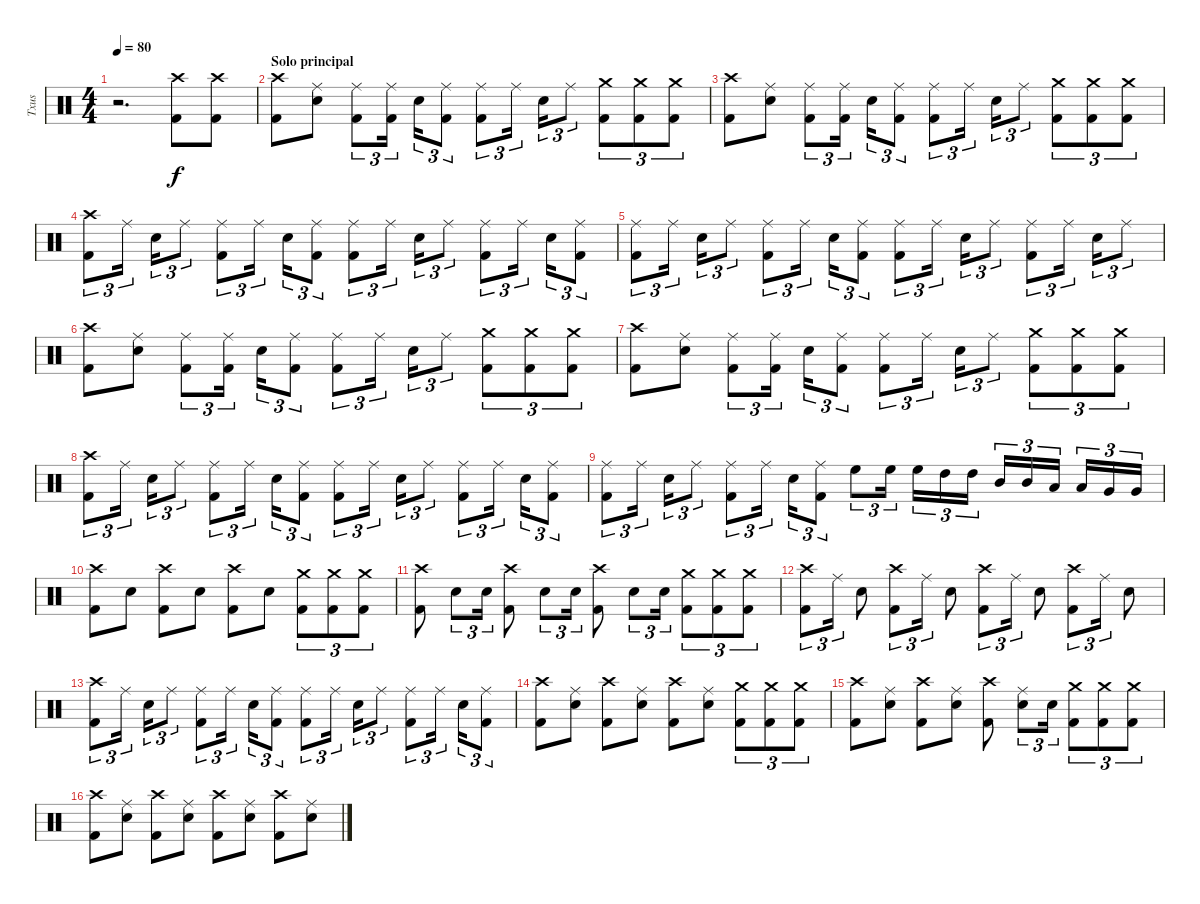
\track ("Txus" "Txus") {instrument percussion}
\staff {score}
\articulation defaults
\ts (4 4)
\tempo 80
\clef neutral
\ks c
r.2{d dy f} ("Kick (hit) 2" "Crash high (hit)").8{volume 16} ("Kick (hit) 2" "Crash high (hit)").8 |
\section ("" "Solo principal")
("Kick (hit) 2" "Crash high (hit)").8 ("Electric Snare (hit)" "Ride (middle)").8 ("Kick (hit) 2" "Ride (middle)").8{tu (3 2)} ("Kick (hit) 2" "Ride (middle)").16{tu (3 2)} "Electric Snare (hit)".16{tu (3 2)} ("Kick (hit) 2" "Ride (middle)").8{tu (3 2)} ("Kick (hit) 2" "Ride (middle)").8{tu (3 2)} "Ride (middle)".16{tu (3 2)} "Electric Snare (hit)".16{tu (3 2)} "Ride (middle)".8{tu (3 2)} ("Kick (hit) 2" "Crash medium (hit)").8{tu (3 2)} ("Kick (hit) 2" "Crash medium (hit)").8{tu (3 2)} ("Kick (hit) 2" "Crash medium (hit)").8{tu (3 2)} |
("Kick (hit) 2" "Crash high (hit)").8 ("Electric Snare (hit)" "Ride (middle)").8 ("Kick (hit) 2" "Ride (middle)").8{tu (3 2)} ("Kick (hit) 2" "Ride (middle)").16{tu (3 2)} "Electric Snare (hit)".16{tu (3 2)} ("Kick (hit) 2" "Ride (middle)").8{tu (3 2)} ("Kick (hit) 2" "Ride (middle)").8{tu (3 2)} "Ride (middle)".16{tu (3 2)} "Electric Snare (hit)".16{tu (3 2)} "Ride (middle)".8{tu (3 2)} ("Kick (hit) 2" "Crash medium (hit)").8{tu (3 2)} ("Kick (hit) 2" "Crash medium (hit)").8{tu (3 2)} ("Kick (hit) 2" "Crash medium (hit)").8{tu (3 2)} |
("Kick (hit) 2" "Crash high (hit)").8{tu (3 2)} "Ride (middle)".16{tu (3 2)} "Electric Snare (hit)".16{tu (3 2)} "Ride (middle)".8{tu (3 2)} ("Kick (hit) 2" "Ride (middle)").8{tu (3 2)} "Ride (middle)".16{tu (3 2)} "Electric Snare (hit)".16{tu (3 2)} ("Kick (hit) 2" "Ride (middle)").8{tu (3 2)} ("Kick (hit) 2" "Ride (middle)").8{tu (3 2)} "Ride (middle)".16{tu (3 2)} "Electric Snare (hit)".16{tu (3 2)} "Ride (middle)".8{tu (3 2)} ("Kick (hit) 2" "Ride (middle)").8{tu (3 2)} "Ride (middle)".16{tu (3 2)} "Electric Snare (hit)".16{tu (3 2)} ("Kick (hit) 2" "Ride (middle)").8{tu (3 2)} |
("Kick (hit) 2" "Ride (middle)").8{tu (3 2)} "Ride (middle)".16{tu (3 2)} "Electric Snare (hit)".16{tu (3 2)} "Ride (middle)".8{tu (3 2)} ("Kick (hit) 2" "Ride (middle)").8{tu (3 2)} "Ride (middle)".16{tu (3 2)} "Electric Snare (hit)".16{tu (3 2)} ("Kick (hit) 2" "Ride (middle)").8{tu (3 2)} ("Kick (hit) 2" "Ride (middle)").8{tu (3 2)} "Ride (middle)".16{tu (3 2)} "Electric Snare (hit)".16{tu (3 2)} "Ride (middle)".8{tu (3 2)} ("Kick (hit) 2" "Ride (middle)").8{tu (3 2)} "Ride (middle)".16{tu (3 2)} "Electric Snare (hit)".16{tu (3 2)} "Ride (middle)".8{tu (3 2)} |
("Kick (hit) 2" "Crash high (hit)").8 ("Electric Snare (hit)" "Ride (middle)").8 ("Kick (hit) 2" "Ride (middle)").8{tu (3 2)} ("Kick (hit) 2" "Ride (middle)").16{tu (3 2)} "Electric Snare (hit)".16{tu (3 2)} ("Kick (hit) 2" "Ride (middle)").8{tu (3 2)} ("Kick (hit) 2" "Ride (middle)").8{tu (3 2)} "Ride (middle)".16{tu (3 2)} "Electric Snare (hit)".16{tu (3 2)} "Ride (middle)".8{tu (3 2)} ("Kick (hit) 2" "Crash medium (hit)").8{tu (3 2)} ("Kick (hit) 2" "Crash medium (hit)").8{tu (3 2)} ("Kick (hit) 2" "Crash medium (hit)").8{tu (3 2)} |
("Kick (hit) 2" "Crash high (hit)").8 ("Electric Snare (hit)" "Ride (middle)").8 ("Kick (hit) 2" "Ride (middle)").8{tu (3 2)} ("Kick (hit) 2" "Ride (middle)").16{tu (3 2)} "Electric Snare (hit)".16{tu (3 2)} ("Kick (hit) 2" "Ride (middle)").8{tu (3 2)} ("Kick (hit) 2" "Ride (middle)").8{tu (3 2)} "Ride (middle)".16{tu (3 2)} "Electric Snare (hit)".16{tu (3 2)} "Ride (middle)".8{tu (3 2)} ("Kick (hit) 2" "Crash medium (hit)").8{tu (3 2)} ("Kick (hit) 2" "Crash medium (hit)").8{tu (3 2)} ("Kick (hit) 2" "Crash medium (hit)").8{tu (3 2)} |
("Kick (hit) 2" "Crash high (hit)").8{tu (3 2)} "Ride (middle)".16{tu (3 2)} "Electric Snare (hit)".16{tu (3 2)} "Ride (middle)".8{tu (3 2)} ("Kick (hit) 2" "Ride (middle)").8{tu (3 2)} "Ride (middle)".16{tu (3 2)} "Electric Snare (hit)".16{tu (3 2)} ("Kick (hit) 2" "Ride (middle)").8{tu (3 2)} ("Kick (hit) 2" "Ride (middle)").8{tu (3 2)} "Ride (middle)".16{tu (3 2)} "Electric Snare (hit)".16{tu (3 2)} "Ride (middle)".8{tu (3 2)} ("Kick (hit) 2" "Ride (middle)").8{tu (3 2)} "Ride (middle)".16{tu (3 2)} "Electric Snare (hit)".16{tu (3 2)} ("Kick (hit) 2" "Ride (middle)").8{tu (3 2)} |
("Kick (hit) 2" "Ride (middle)").8{tu (3 2)} "Ride (middle)".16{tu (3 2)} "Electric Snare (hit)".16{tu (3 2)} "Ride (middle)".8{tu (3 2)} ("Kick (hit) 2" "Ride (middle)").8{tu (3 2)} "Ride (middle)".16{tu (3 2)} "Electric Snare (hit)".16{tu (3 2)} ("Kick (hit) 2" "Ride (middle)").8{tu (3 2)} "High Floor Tom (hit)".8{tu (3 2)} "High Floor Tom (hit)".16{tu (3 2)} "High Floor Tom (hit)".16{tu (3 2)} "High Tom (hit)".16{tu (3 2)} "High Tom (hit)".16{tu (3 2)} "Mid Tom (hit)".16{tu (3 2)} "Mid Tom (hit)".16{tu (3 2)} "Low Tom (hit)".16{tu (3 2)} "Low Tom (hit)".16{tu (3 2)} "Very Low Tom (hit)".16{tu (3 2)} "Very Low Tom (hit)".16{tu (3 2)} |
("Kick (hit) 2" "Crash high (hit)").8 "Electric Snare (hit)".8 ("Kick (hit) 2" "Crash high (hit)").8 "Electric Snare (hit)".8 ("Kick (hit) 2" "Crash high (hit)").8 "Electric Snare (hit)".8 ("Kick (hit) 2" "Crash medium (hit)").8{tu (3 2)} ("Kick (hit) 2" "Crash medium (hit)").8{tu (3 2)} ("Kick (hit) 2" "Crash medium (hit)").8{tu (3 2)} |
("Kick (hit) 2" "Crash high (hit)").8 "Electric Snare (hit)".8{tu (3 2)} "Electric Snare (hit)".16{tu (3 2)} ("Kick (hit) 2" "Crash high (hit)").8 "Electric Snare (hit)".8{tu (3 2)} "Electric Snare (hit)".16{tu (3 2)} ("Kick (hit) 2" "Crash high (hit)").8 "Electric Snare (hit)".8{tu (3 2)} "Electric Snare (hit)".16{tu (3 2)} ("Kick (hit) 2" "Crash medium (hit)").8{tu (3 2)} ("Kick (hit) 2" "Crash medium (hit)").8{tu (3 2)} ("Kick (hit) 2" "Crash medium (hit)").8{tu (3 2)} |
("Kick (hit) 2" "Crash high (hit)").8{tu (3 2)} "Ride (middle)".16{tu (3 2)} "Electric Snare (hit)".8 ("Kick (hit) 2" "Crash high (hit)").8{tu (3 2)} "Ride (middle)".16{tu (3 2)} "Electric Snare (hit)".8 ("Kick (hit) 2" "Crash high (hit)").8{tu (3 2)} "Ride (middle)".16{tu (3 2)} "Electric Snare (hit)".8 ("Kick (hit) 2" "Crash high (hit)").8{tu (3 2)} "Ride (middle)".16{tu (3 2)} "Electric Snare (hit)".8 |
("Kick (hit) 2" "Crash high (hit)").8{tu (3 2)} "Ride (middle)".16{tu (3 2)} "Electric Snare (hit)".16{tu (3 2)} "Ride (middle)".8{tu (3 2)} ("Kick (hit) 2" "Ride (middle)").8{tu (3 2)} "Ride (middle)".16{tu (3 2)} "Electric Snare (hit)".16{tu (3 2)} ("Kick (hit) 2" "Ride (middle)").8{tu (3 2)} ("Kick (hit) 2" "Ride (middle)").8{tu (3 2)} "Ride (middle)".16{tu (3 2)} "Electric Snare (hit)".16{tu (3 2)} "Ride (middle)".8{tu (3 2)} ("Kick (hit) 2" "Ride (middle)").8{tu (3 2)} "Ride (middle)".16{tu (3 2)} "Electric Snare (hit)".16{tu (3 2)} ("Kick (hit) 2" "Ride (middle)").8{tu (3 2)} |
("Kick (hit) 2" "Crash high (hit)").8 ("Electric Snare (hit)" "Ride (middle)").8 ("Kick (hit) 2" "Crash high (hit)").8 ("Electric Snare (hit)" "Ride (middle)").8 ("Kick (hit) 2" "Crash high (hit)").8 ("Electric Snare (hit)" "Ride (middle)").8 ("Kick (hit) 2" "Crash medium (hit)").8{tu (3 2)} ("Kick (hit) 2" "Crash medium (hit)").8{tu (3 2)} ("Kick (hit) 2" "Crash medium (hit)").8{tu (3 2)} |
("Kick (hit) 2" "Crash high (hit)").8 ("Electric Snare (hit)" "Ride (middle)").8 ("Kick (hit) 2" "Crash high (hit)").8 ("Electric Snare (hit)" "Ride (middle)").8 ("Kick (hit) 2" "Crash high (hit)").8 ("Electric Snare (hit)" "Ride (middle)").8{tu (3 2)} "Electric Snare (hit)".16{tu (3 2)} ("Kick (hit) 2" "Crash medium (hit)").8{tu (3 2)} ("Kick (hit) 2" "Crash medium (hit)").8{tu (3 2)} ("Kick (hit) 2" "Crash medium (hit)").8{tu (3 2)} |
("Kick (hit) 2" "Crash high (hit)").8 ("Electric Snare (hit)" "Ride (middle)").8 ("Kick (hit) 2" "Crash high (hit)").8 ("Electric Snare (hit)" "Ride (middle)").8 ("Kick (hit) 2" "Crash high (hit)").8 ("Electric Snare (hit)" "Ride (middle)").8 ("Kick (hit) 2" "Crash high (hit)").8 ("Electric Snare (hit)" "Ride (middle)").8
